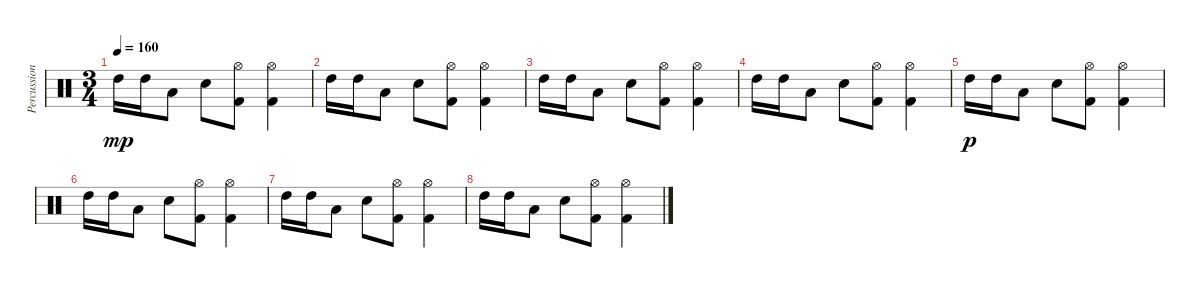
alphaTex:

\track ("Percussion" "Percussion") {instrument percussion}
\staff {score}
\articulation defaults
\ts (3 4)
\tempo 160
\clef neutral
\ks c "High Tom (hit)".16{dy mp} "High Tom (hit)".16 "Low Tom (hit)".8 "Snare (hit) 2".8
("Hi-Hat (open)" "Kick (hit) 2").8 ("Hi-Hat (open)" "Kick (hit) 2").4 |
"High Tom (hit)".16 "High Tom (hit)".16 "Low Tom (hit)".8 "Snare (hit) 2".8 ("Hi-Hat (open)" "Kick (hit) 2").8 ("Hi-Hat (open)" "Kick (hit) 2").4 |
"High Tom (hit)".16 "High Tom (hit)".16 "Low Tom (hit)".8 "Snare (hit) 2".8 ("Hi-Hat (open)" "Kick (hit) 2").8 ("Hi-Hat (open)" "Kick (hit) 2").4 |
"High Tom (hit)".16 "High Tom (hit)".16 "Low Tom (hit)".8 "Snare (hit) 2".8 ("Hi-Hat (open)" "Kick (hit) 2").8 ("Hi-Hat (open)" "Kick (hit) 2").4 |
"High Tom (hit)".16{dy p} "High Tom (hit)".16 "Low Tom (hit)".8 "Snare (hit) 2".8 ("Hi-Hat (open)" "Kick (hit) 2").8 ("Hi-Hat (open)" "Kick (hit) 2").4 |
"High Tom (hit)".16 "High Tom (hit)".16 "Low Tom (hit)".8 "Snare (hit) 2".8 ("Hi-Hat (open)" "Kick (hit) 2").8 ("Hi-Hat (open)" "Kick (hit) 2").4 |
"High Tom (hit)".16 "High Tom (hit)".16 "Low Tom (hit)".8 "Snare (hit) 2".8 ("Hi-Hat (open)" "Kick (hit) 2").8 ("Hi-Hat (open)" "Kick (hit) 2").4 |
"High Tom (hit)".16 "High Tom (hit)".16 "Low Tom (hit)".8 "Snare (hit) 2".8 ("Hi-Hat (open)" "Kick (hit) 2").8 ("Hi-Hat (open)" "Kick (hit) 2").4
